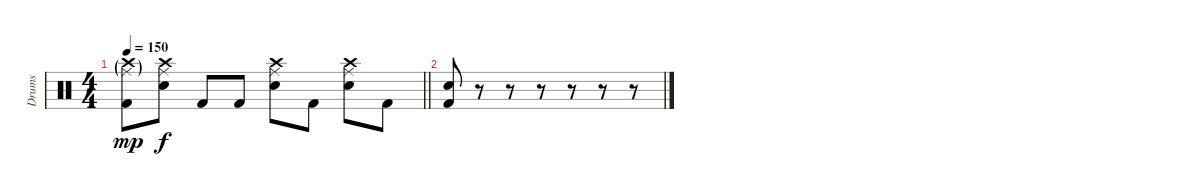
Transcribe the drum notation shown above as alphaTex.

\track ("Drums" "Drums") {instrument percussion}
\staff {score}
\articulation defaults
\ts (4 4)
\tempo 150
\clef neutral
\barLineRight lightlight
\ks c
("Ride (middle)"{g} "Crash high (hit)"{g} "Kick (hit) 2").8{dy mp} ("Ride (middle)" "Crash high (hit)" "Electric Snare (hit)").8{dy f} "Kick (hit) 2".8 "Kick (hit) 2".8 ("Ride (middle)" "Crash high (hit)" "Electric Snare (hit)").8 "Kick (hit) 2".8 ("Ride (middle)" "Crash high (hit)" "Electric Snare (hit)").8 "Kick (hit) 2".8 |
("Electric Snare (hit)" "Kick (hit) 2").8 r.8 r.8 r.8 r.8 r.8 r.8
